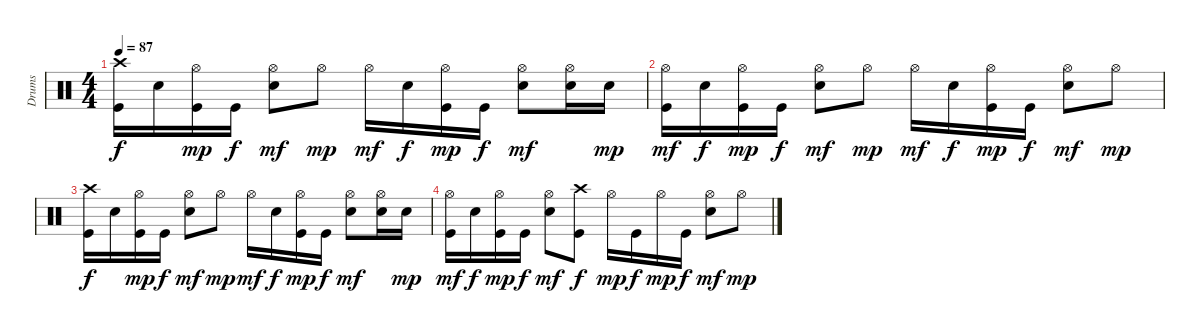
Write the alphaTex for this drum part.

\track ("Drums" "Drums") {instrument percussion}
\staff {score}
\articulation defaults
\ts (4 4)
\tempo 87
\clef neutral
\ks c
("Crash high (hit)" "Kick (hit)").16{dy f} "Snare (hit) 2".16 ("Hi-Hat (open)" "Kick (hit)").16{dy mp} "Kick (hit)".16{dy f} ("Hi-Hat (open)" "Snare (hit) 2").8{dy mf} "Hi-Hat (open)".8{dy mp} "Hi-Hat (open)".16{dy mf} "Snare (hit) 2".16{dy f} ("Hi-Hat (open)" "Kick (hit)").16{dy mp} "Kick (hit)".16{dy f} ("Hi-Hat (open)" "Snare (hit) 2").8{dy mf} ("Hi-Hat (open)" "Snare (hit) 2").16 "Snare (hit) 2".16{dy mp} |
("Hi-Hat (open)" "Kick (hit)").16{dy mf} "Snare (hit) 2".16{dy f} ("Hi-Hat (open)" "Kick (hit)").16{dy mp} "Kick (hit)".16{dy f} ("Hi-Hat (open)" "Snare (hit) 2").8{dy mf} "Hi-Hat (open)".8{dy mp} "Hi-Hat (open)".16{dy mf} "Snare (hit) 2".16{dy f} ("Hi-Hat (open)" "Kick (hit)").16{dy mp} "Kick (hit)".16{dy f} ("Hi-Hat (open)" "Snare (hit) 2").8{dy mf} "Hi-Hat (open)".8{dy mp} |
("Crash high (hit)" "Kick (hit)").16{dy f} "Snare (hit) 2".16 ("Hi-Hat (open)" "Kick (hit)").16{dy mp} "Kick (hit)".16{dy f} ("Hi-Hat (open)" "Snare (hit) 2").8{dy mf} "Hi-Hat (open)".8{dy mp} "Hi-Hat (open)".16{dy mf} "Snare (hit) 2".16{dy f} ("Hi-Hat (open)" "Kick (hit)").16{dy mp} "Kick (hit)".16{dy f} ("Hi-Hat (open)" "Snare (hit) 2").8{dy mf} ("Hi-Hat (open)" "Snare (hit) 2").16 "Snare (hit) 2".16{dy mp} |
("Hi-Hat (open)" "Kick (hit)").16{dy mf} "Snare (hit) 2".16{dy f} ("Hi-Hat (open)" "Kick (hit)").16{dy mp} "Kick (hit)".16{dy f} ("Hi-Hat (open)" "Snare (hit) 2").8{dy mf} ("Crash high (hit)" "Kick (hit)").8{dy f} "Hi-Hat (open)".16{dy mp} "Kick (hit)".16{dy f} "Hi-Hat (open)".16{dy mp} "Kick (hit)".16{dy f} ("Hi-Hat (open)" "Snare (hit) 2").8{dy mf} "Hi-Hat (open)".8{dy mp}
